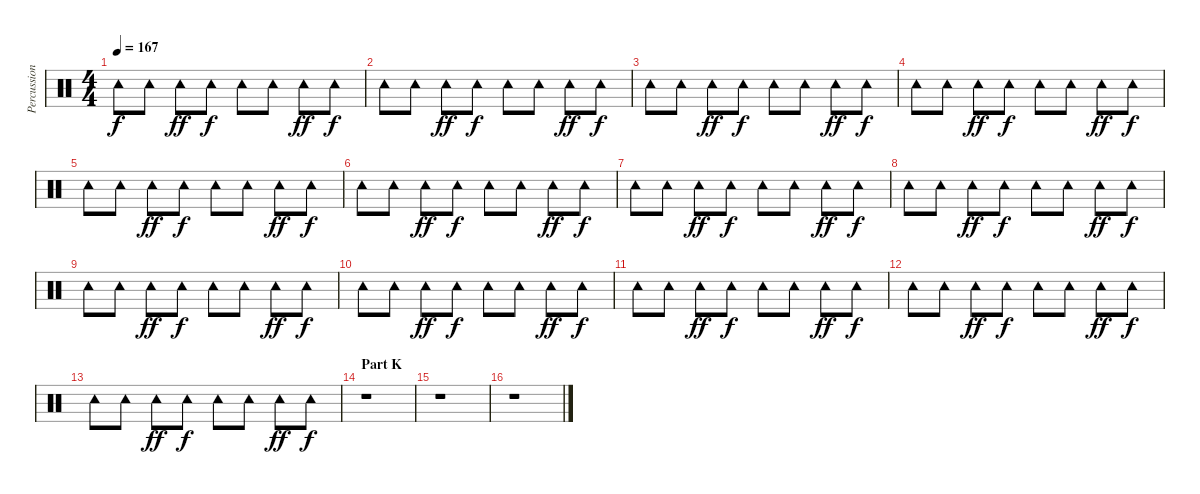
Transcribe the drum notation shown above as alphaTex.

\track ("Percussion" "Percussion") {instrument percussion}
\staff {score}
\articulation defaults
\ts (4 4)
\tempo 167
\clef neutral
\ks c "Tambourine (hit)".8{dy f} "Tambourine (hit)".8 "Tambourine (hit)".8{dy ff} "Tambourine (hit)".8{dy f} "Tambourine (hit)".8 "Tambourine (hit)".8 "Tambourine (hit)".8{dy ff} "Tambourine (hit)".8{dy f}
|
"Tambourine (hit)".8 "Tambourine (hit)".8 "Tambourine (hit)".8{dy ff} "Tambourine (hit)".8{dy f} "Tambourine (hit)".8 "Tambourine (hit)".8 "Tambourine (hit)".8{dy ff} "Tambourine (hit)".8{dy f} |
"Tambourine (hit)".8 "Tambourine (hit)".8 "Tambourine (hit)".8{dy ff} "Tambourine (hit)".8{dy f} "Tambourine (hit)".8 "Tambourine (hit)".8 "Tambourine (hit)".8{dy ff} "Tambourine (hit)".8{dy f} |
"Tambourine (hit)".8 "Tambourine (hit)".8 "Tambourine (hit)".8{dy ff} "Tambourine (hit)".8{dy f} "Tambourine (hit)".8 "Tambourine (hit)".8 "Tambourine (hit)".8{dy ff} "Tambourine (hit)".8{dy f} |
"Tambourine (hit)".8 "Tambourine (hit)".8 "Tambourine (hit)".8{dy ff} "Tambourine (hit)".8{dy f} "Tambourine (hit)".8 "Tambourine (hit)".8 "Tambourine (hit)".8{dy ff} "Tambourine (hit)".8{dy f} |
"Tambourine (hit)".8 "Tambourine (hit)".8 "Tambourine (hit)".8{dy ff} "Tambourine (hit)".8{dy f} "Tambourine (hit)".8 "Tambourine (hit)".8 "Tambourine (hit)".8{dy ff} "Tambourine (hit)".8{dy f} |
"Tambourine (hit)".8 "Tambourine (hit)".8 "Tambourine (hit)".8{dy ff} "Tambourine (hit)".8{dy f} "Tambourine (hit)".8 "Tambourine (hit)".8 "Tambourine (hit)".8{dy ff} "Tambourine (hit)".8{dy f} |
"Tambourine (hit)".8 "Tambourine (hit)".8 "Tambourine (hit)".8{dy ff} "Tambourine (hit)".8{dy f} "Tambourine (hit)".8 "Tambourine (hit)".8 "Tambourine (hit)".8{dy ff} "Tambourine (hit)".8{dy f} |
"Tambourine (hit)".8 "Tambourine (hit)".8 "Tambourine (hit)".8{dy ff} "Tambourine (hit)".8{dy f} "Tambourine (hit)".8 "Tambourine (hit)".8 "Tambourine (hit)".8{dy ff} "Tambourine (hit)".8{dy f} |
"Tambourine (hit)".8 "Tambourine (hit)".8 "Tambourine (hit)".8{dy ff} "Tambourine (hit)".8{dy f} "Tambourine (hit)".8 "Tambourine (hit)".8 "Tambourine (hit)".8{dy ff} "Tambourine (hit)".8{dy f} |
"Tambourine (hit)".8 "Tambourine (hit)".8 "Tambourine (hit)".8{dy ff} "Tambourine (hit)".8{dy f} "Tambourine (hit)".8 "Tambourine (hit)".8 "Tambourine (hit)".8{dy ff} "Tambourine (hit)".8{dy f} |
"Tambourine (hit)".8 "Tambourine (hit)".8 "Tambourine (hit)".8{dy ff} "Tambourine (hit)".8{dy f} "Tambourine (hit)".8 "Tambourine (hit)".8 "Tambourine (hit)".8{dy ff} "Tambourine (hit)".8{dy f} |
"Tambourine (hit)".8 "Tambourine (hit)".8 "Tambourine (hit)".8{dy ff} "Tambourine (hit)".8{dy f} "Tambourine (hit)".8 "Tambourine (hit)".8 "Tambourine (hit)".8{dy ff} "Tambourine (hit)".8{dy f} |
\section ("" "Part K")
r.1 |
r.1 |
r.1
